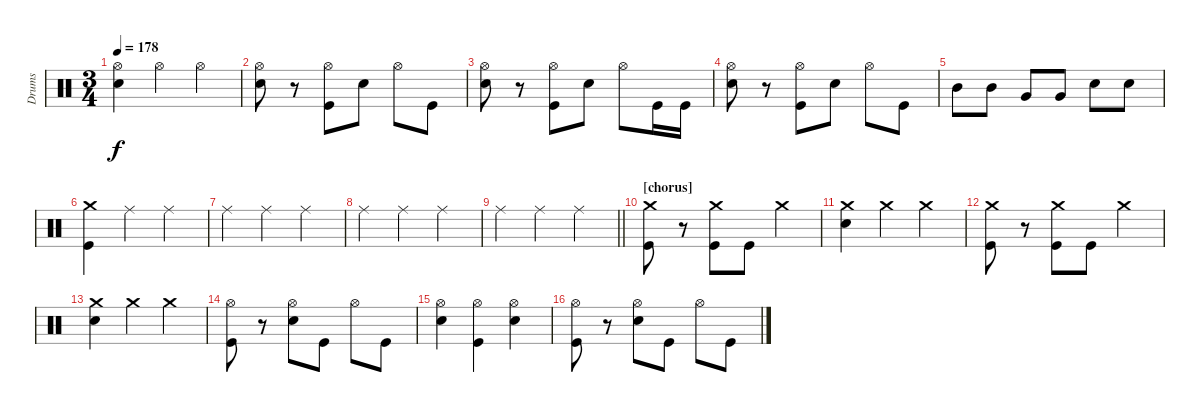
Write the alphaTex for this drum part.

\track ("Drums" "Drums") {instrument percussion}
\staff {score}
\articulation defaults
\ts (3 4)
\tempo 178
\clef neutral
\ks c
("Hi-Hat (open)" "Snare (hit) 2").4{dy f} "Hi-Hat (open)".4 "Hi-Hat (open)".4 |
("Hi-Hat (open)" "Snare (hit) 2").8 r.8 ("Hi-Hat (open)" "Kick (hit)").8 "Snare (hit) 2".8 "Hi-Hat (open)".8 "Kick (hit)".8 |
("Hi-Hat (open)" "Snare (hit) 2").8 r.8 ("Hi-Hat (open)" "Kick (hit)").8 "Snare (hit) 2".8 "Hi-Hat (open)".8 "Kick (hit)".16 "Kick (hit)".16 |
("Hi-Hat (open)" "Snare (hit) 2").8 r.8 ("Hi-Hat (open)" "Kick (hit)").8 "Snare (hit) 2".8 "Hi-Hat (open)".8 "Kick (hit)".8 |
"Mid Tom (hit)".8 "Mid Tom (hit)".8 "Very Low Tom (hit)".8 "Very Low Tom (hit)".8 "Snare (hit) 2".8 "Snare (hit) 2".8 |
("Crash medium (hit)" "Kick (hit)").4 "Ride (middle)".4 "Ride (middle)".4 |
"Ride (middle)".4 "Ride (middle)".4 "Ride (middle)".4 |
"Ride (middle)".4 "Ride (middle)".4 "Ride (middle)".4 |
\barLineRight lightlight "Ride (middle)".4 "Ride (middle)".4 "Ride (middle)".4
|
\section ("" "[chorus]")
("Crash medium (hit)" "Kick (hit)").8 r.8 ("Crash medium (hit)" "Kick (hit)").8 "Kick (hit)".8 "Crash medium (hit)".4 |
("Crash medium (hit)" "Snare (hit) 2").4 "Crash medium (hit)".4 "Crash medium (hit)".4 |
("Crash medium (hit)" "Kick (hit)").8 r.8 ("Crash medium (hit)" "Kick (hit)").8 "Kick (hit)".8 "Crash medium (hit)".4 |
("Crash medium (hit)" "Snare (hit) 2").4 "Crash medium (hit)".4 "Crash medium (hit)".4 |
("Hi-Hat (open)" "Kick (hit)").8 r.8 ("Hi-Hat (open)" "Snare (hit) 2").8 "Kick (hit)".8 "Hi-Hat (open)".8 "Kick (hit)".8 |
("Hi-Hat (open)" "Snare (hit) 2").4 ("Hi-Hat (open)" "Kick (hit)").4 ("Hi-Hat (open)" "Snare (hit) 2").4 |
("Hi-Hat (open)" "Kick (hit)").8 r.8 ("Hi-Hat (open)" "Snare (hit) 2").8 "Kick (hit)".8 "Hi-Hat (open)".8 "Kick (hit)".8
